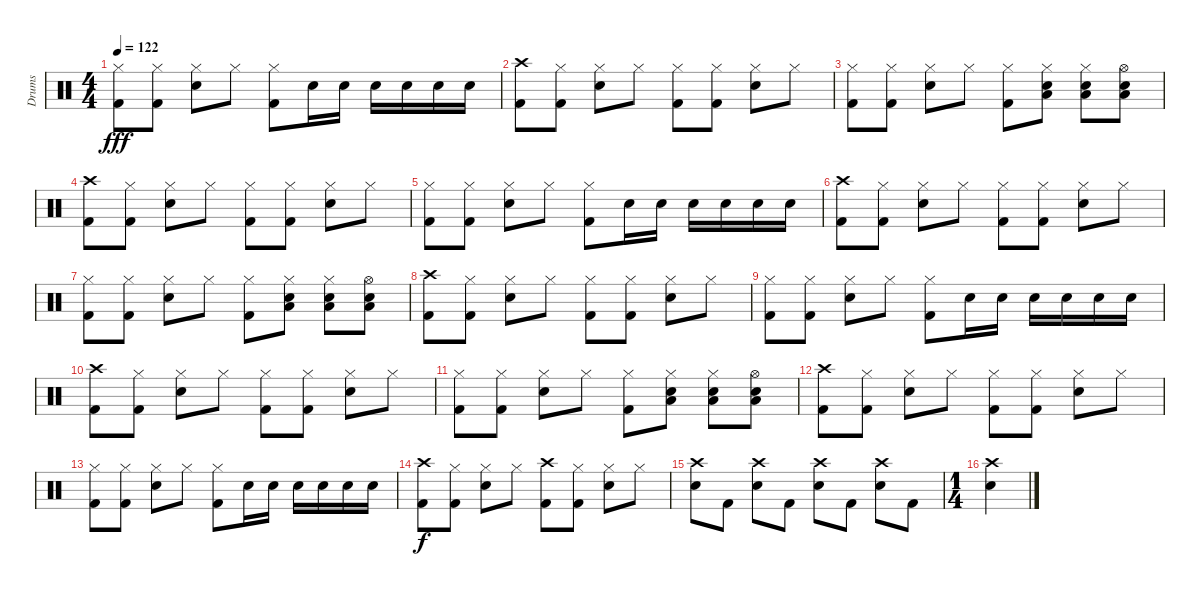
\track ("Drums" "Drums") {instrument percussion}
\staff {score}
\articulation defaults
\ts (4 4)
\tempo 122
\clef neutral
\ks c
("Hi-Hat (closed)" "Kick (hit) 2").8{dy fff} ("Hi-Hat (closed)" "Kick (hit) 2").8 ("Hi-Hat (closed)" "Snare (hit) 2").8 "Hi-Hat (closed)".8 ("Hi-Hat (closed)" "Kick (hit) 2").8 "Snare (hit) 2".16 "Snare (hit) 2".16 "Snare (hit) 2".16 "Snare (hit) 2".16 "Snare (hit) 2".16 "Snare (hit) 2".16 |
("Crash high (hit)" "Kick (hit) 2").8 ("Hi-Hat (closed)" "Kick (hit) 2").8 ("Hi-Hat (closed)" "Snare (hit) 2").8 "Hi-Hat (closed)".8 ("Hi-Hat (closed)" "Kick (hit) 2").8 ("Hi-Hat (closed)" "Kick (hit) 2").8 ("Hi-Hat (closed)" "Snare (hit) 2").8 "Hi-Hat (closed)".8 |
("Hi-Hat (closed)" "Kick (hit) 2").8 ("Hi-Hat (closed)" "Kick (hit) 2").8 ("Hi-Hat (closed)" "Snare (hit) 2").8 "Hi-Hat (closed)".8 ("Hi-Hat (closed)" "Kick (hit) 2").8 ("Hi-Hat (closed)" "Snare (hit) 2" "Low Floor Tom (hit)").8 ("Hi-Hat (closed)" "Snare (hit) 2" "Low Floor Tom (hit)").8 ("Hi-Hat (open)" "Snare (hit) 2" "Low Floor Tom (hit)").8 |
("Crash high (hit)" "Kick (hit) 2").8 ("Hi-Hat (closed)" "Kick (hit) 2").8 ("Hi-Hat (closed)" "Snare (hit) 2").8 "Hi-Hat (closed)".8 ("Hi-Hat (closed)" "Kick (hit) 2").8 ("Hi-Hat (closed)" "Kick (hit) 2").8 ("Hi-Hat (closed)" "Snare (hit) 2").8 "Hi-Hat (closed)".8 |
("Hi-Hat (closed)" "Kick (hit) 2").8 ("Hi-Hat (closed)" "Kick (hit) 2").8 ("Hi-Hat (closed)" "Snare (hit) 2").8 "Hi-Hat (closed)".8 ("Hi-Hat (closed)" "Kick (hit) 2").8 "Snare (hit) 2".16 "Snare (hit) 2".16 "Snare (hit) 2".16 "Snare (hit) 2".16 "Snare (hit) 2".16 "Snare (hit) 2".16 |
("Crash high (hit)" "Kick (hit) 2").8 ("Hi-Hat (closed)" "Kick (hit) 2").8 ("Hi-Hat (closed)" "Snare (hit) 2").8 "Hi-Hat (closed)".8 ("Hi-Hat (closed)" "Kick (hit) 2").8 ("Hi-Hat (closed)" "Kick (hit) 2").8 ("Hi-Hat (closed)" "Snare (hit) 2").8 "Hi-Hat (closed)".8 |
("Hi-Hat (closed)" "Kick (hit) 2").8 ("Hi-Hat (closed)" "Kick (hit) 2").8 ("Hi-Hat (closed)" "Snare (hit) 2").8 "Hi-Hat (closed)".8 ("Hi-Hat (closed)" "Kick (hit) 2").8 ("Hi-Hat (closed)" "Snare (hit) 2" "Low Floor Tom (hit)").8 ("Hi-Hat (closed)" "Snare (hit) 2" "Low Floor Tom (hit)").8 ("Hi-Hat (open)" "Snare (hit) 2" "Low Floor Tom (hit)").8 |
("Crash high (hit)" "Kick (hit) 2").8 ("Hi-Hat (closed)" "Kick (hit) 2").8 ("Hi-Hat (closed)" "Snare (hit) 2").8 "Hi-Hat (closed)".8 ("Hi-Hat (closed)" "Kick (hit) 2").8 ("Hi-Hat (closed)" "Kick (hit) 2").8 ("Hi-Hat (closed)" "Snare (hit) 2").8 "Hi-Hat (closed)".8 |
("Hi-Hat (closed)" "Kick (hit) 2").8 ("Hi-Hat (closed)" "Kick (hit) 2").8 ("Hi-Hat (closed)" "Snare (hit) 2").8 "Hi-Hat (closed)".8 ("Hi-Hat (closed)" "Kick (hit) 2").8 "Snare (hit) 2".16 "Snare (hit) 2".16 "Snare (hit) 2".16 "Snare (hit) 2".16 "Snare (hit) 2".16 "Snare (hit) 2".16 |
("Crash high (hit)" "Kick (hit) 2").8 ("Hi-Hat (closed)" "Kick (hit) 2").8 ("Hi-Hat (closed)" "Snare (hit) 2").8 "Hi-Hat (closed)".8 ("Hi-Hat (closed)" "Kick (hit) 2").8 ("Hi-Hat (closed)" "Kick (hit) 2").8 ("Hi-Hat (closed)" "Snare (hit) 2").8 "Hi-Hat (closed)".8 |
("Hi-Hat (closed)" "Kick (hit) 2").8 ("Hi-Hat (closed)" "Kick (hit) 2").8 ("Hi-Hat (closed)" "Snare (hit) 2").8 "Hi-Hat (closed)".8 ("Hi-Hat (closed)" "Kick (hit) 2").8 ("Hi-Hat (closed)" "Snare (hit) 2" "Low Floor Tom (hit)").8 ("Hi-Hat (closed)" "Snare (hit) 2" "Low Floor Tom (hit)").8 ("Hi-Hat (open)" "Snare (hit) 2" "Low Floor Tom (hit)").8 |
("Crash high (hit)" "Kick (hit) 2").8 ("Hi-Hat (closed)" "Kick (hit) 2").8 ("Hi-Hat (closed)" "Snare (hit) 2").8 "Hi-Hat (closed)".8 ("Hi-Hat (closed)" "Kick (hit) 2").8 ("Hi-Hat (closed)" "Kick (hit) 2").8 ("Hi-Hat (closed)" "Snare (hit) 2").8 "Hi-Hat (closed)".8 |
("Hi-Hat (closed)" "Kick (hit) 2").8 ("Hi-Hat (closed)" "Kick (hit) 2").8 ("Hi-Hat (closed)" "Snare (hit) 2").8 "Hi-Hat (closed)".8 ("Hi-Hat (closed)" "Kick (hit) 2").8 "Snare (hit) 2".16 "Snare (hit) 2".16 "Snare (hit) 2".16 "Snare (hit) 2".16 "Snare (hit) 2".16 "Snare (hit) 2".16 |
("Crash high (hit)" "Kick (hit) 2").8{dy f} ("Hi-Hat (closed)" "Kick (hit) 2").8 ("Hi-Hat (closed)" "Snare (hit) 2").8 "Hi-Hat (closed)".8 ("Crash high (hit)" "Kick (hit) 2").8 ("Hi-Hat (closed)" "Kick (hit) 2").8 ("Hi-Hat (closed)" "Snare (hit) 2").8 "Hi-Hat (closed)".8 |
("Crash high (hit)" "Snare (hit) 2").8 "Kick (hit) 2".8 ("Crash high (hit)" "Snare (hit) 2").8 "Kick (hit) 2".8 ("Crash high (hit)" "Snare (hit) 2").8 "Kick (hit) 2".8 ("Crash high (hit)" "Snare (hit) 2").8 "Kick (hit) 2".8 |
\ts (1 4)
("Crash high (hit)" "Snare (hit) 2").4
